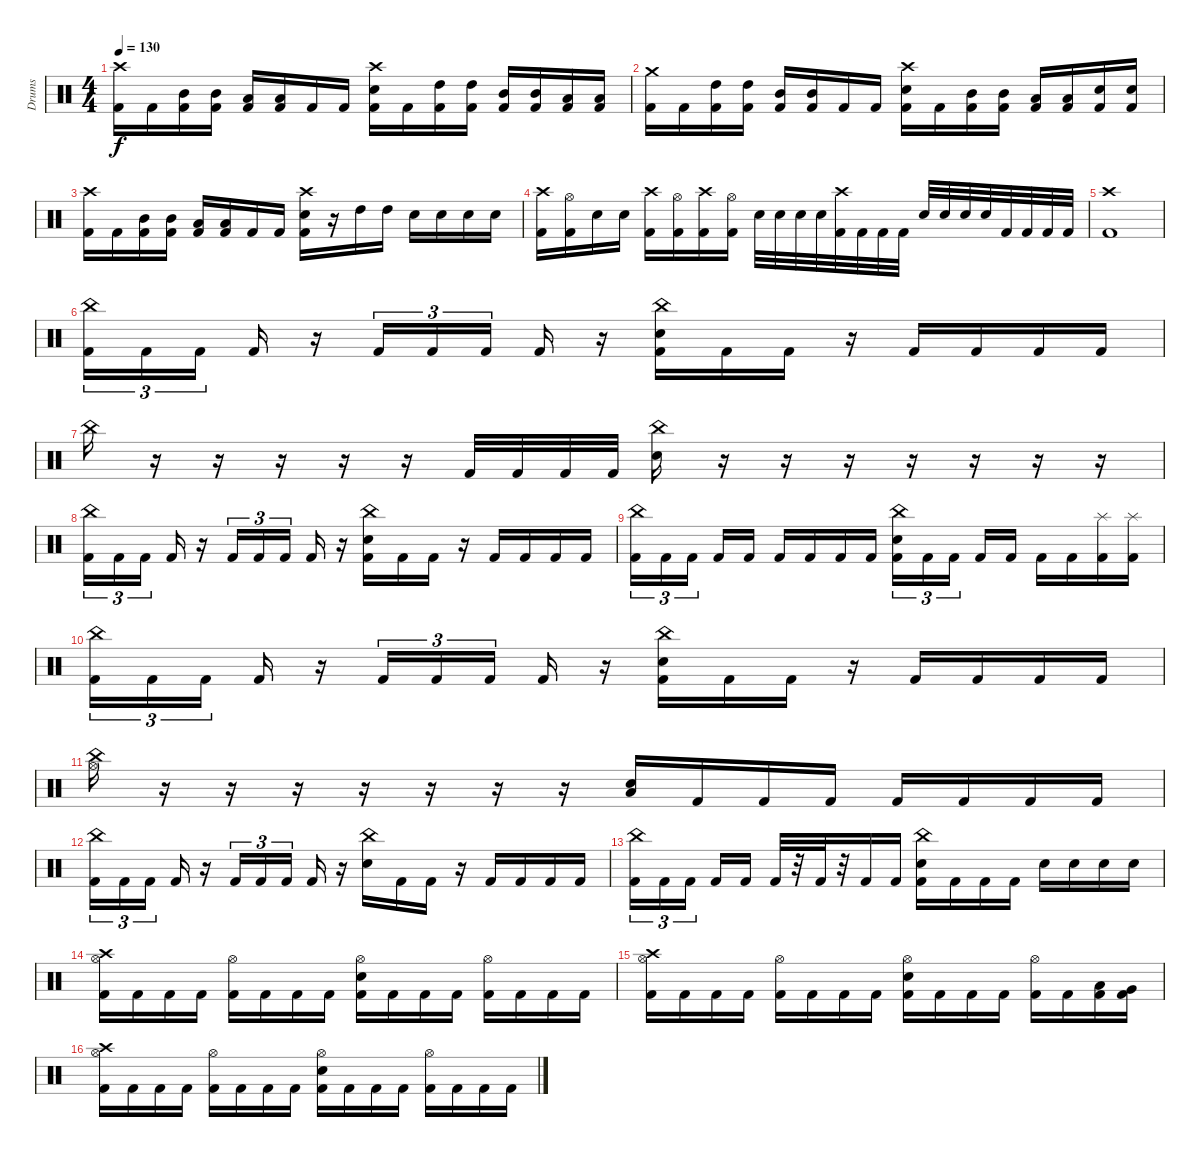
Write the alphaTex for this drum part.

\track ("Drums" "Drums") {instrument percussion}
\staff {score}
\articulation defaults
\ts (4 4)
\tempo 130
\clef neutral
\ks c
("Crash high (hit)" "Kick (hit) 2").16{dy f} "Kick (hit) 2".16 ("Mid Tom (hit)" "Kick (hit) 2").16 ("Mid Tom (hit)" "Kick (hit) 2").16 ("Low Tom (hit)" "Kick (hit) 2").16 ("Low Tom (hit)" "Kick (hit) 2").16 "Kick (hit) 2".16 "Kick (hit) 2".16 ("Crash high (hit)" "Electric Snare (hit)" "Kick (hit) 2").16 "Kick (hit) 2".16 ("High Tom (hit)" "Kick (hit) 2").16 ("High Tom (hit)" "Kick (hit) 2").16 ("Mid Tom (hit)" "Kick (hit) 2").16 ("Mid Tom (hit)" "Kick (hit) 2").16 ("Low Tom (hit)" "Kick (hit) 2").16 ("Low Tom (hit)" "Kick (hit) 2").16 |
("Crash medium (hit)" "Kick (hit) 2").16 "Kick (hit) 2".16 ("High Tom (hit)" "Kick (hit) 2").16 ("High Tom (hit)" "Kick (hit) 2").16 ("Mid Tom (hit)" "Kick (hit) 2").16 ("Mid Tom (hit)" "Kick (hit) 2").16 "Kick (hit) 2".16 "Kick (hit) 2".16 ("Crash high (hit)" "Electric Snare (hit)" "Kick (hit) 2").16 "Kick (hit) 2".16 ("Mid Tom (hit)" "Kick (hit) 2").16 ("Mid Tom (hit)" "Kick (hit) 2").16 ("Low Tom (hit)" "Kick (hit) 2").16 ("Low Tom (hit)" "Kick (hit) 2").16 ("Electric Snare (hit)" "Kick (hit) 2").16 ("Electric Snare (hit)" "Kick (hit) 2").16 |
("Crash high (hit)" "Kick (hit) 2").16 "Kick (hit) 2".16 ("Mid Tom (hit)" "Kick (hit) 2").16 ("Mid Tom (hit)" "Kick (hit) 2").16 ("Low Tom (hit)" "Kick (hit) 2").16 ("Low Tom (hit)" "Kick (hit) 2").16 "Kick (hit) 2".16 "Kick (hit) 2".16 ("Crash high (hit)" "Electric Snare (hit)" "Kick (hit) 2").16 r.16 "High Tom (hit)".16 "High Tom (hit)".16 "Electric Snare (hit)".16 "Electric Snare (hit)".16 "Electric Snare (hit)".16 "Electric Snare (hit)".16 |
("Crash high (hit)" "Kick (hit) 2").16 ("Hi-Hat (open)" "Kick (hit) 2").16 "Electric Snare (hit)".16 "Electric Snare (hit)".16 ("Crash high (hit)" "Kick (hit) 2").16 ("Hi-Hat (open)" "Kick (hit) 2").16 ("Crash high (hit)" "Kick (hit) 2").16 ("Hi-Hat (open)" "Kick (hit) 2").16 "Electric Snare (hit)".32 "Electric Snare (hit)".32 "Electric Snare (hit)".32 "Electric Snare (hit)".32 ("Crash high (hit)" "Kick (hit) 2").32 "Kick (hit) 2".32 "Kick (hit) 2".32 "Kick (hit) 2".32 "Electric Snare (hit)".32 "Electric Snare (hit)".32 "Electric Snare (hit)".32 "Electric Snare (hit)".32 "Kick (hit) 2".32 "Kick (hit) 2".32 "Kick (hit) 2".32 "Kick (hit) 2".32 |
("Crash high (hit)" "Kick (hit) 2").1 |
("China (hit)" "Kick (hit) 2").16{tu (3 2)} "Kick (hit) 2".16{tu (3 2)} "Kick (hit) 2".16{tu (3 2) beam splitsecondary} "Kick (hit) 2".16 r.16 "Kick (hit) 2".16{tu (3 2)} "Kick (hit) 2".16{tu (3 2)} "Kick (hit) 2".16{tu (3 2) beam splitsecondary} "Kick (hit) 2".16 r.16 ("China (hit)" "Electric Snare (hit)" "Kick (hit) 2").16 "Kick (hit) 2".16 "Kick (hit) 2".16 r.16 "Kick (hit) 2".16 "Kick (hit) 2".16 "Kick (hit) 2".16 "Kick (hit) 2".16 |
"China (hit)".16 r.16 r.16 r.16 r.16 r.16 "Kick (hit) 2".32 "Kick (hit) 2".32 "Kick (hit) 2".32 "Kick (hit) 2".32 ("China (hit)" "Electric Snare (hit)").16 r.16 r.16 r.16 r.16 r.16 r.16 r.16 |
("China (hit)" "Kick (hit) 2").16{tu (3 2)} "Kick (hit) 2".16{tu (3 2)} "Kick (hit) 2".16{tu (3 2) beam splitsecondary} "Kick (hit) 2".16 r.16 "Kick (hit) 2".16{tu (3 2)} "Kick (hit) 2".16{tu (3 2)} "Kick (hit) 2".16{tu (3 2) beam splitsecondary} "Kick (hit) 2".16 r.16 ("China (hit)" "Electric Snare (hit)" "Kick (hit) 2").16 "Kick (hit) 2".16 "Kick (hit) 2".16 r.16 "Kick (hit) 2".16 "Kick (hit) 2".16 "Kick (hit) 2".16 "Kick (hit) 2".16 |
("China (hit)" "Kick (hit) 2").16{tu (3 2)} "Kick (hit) 2".16{tu (3 2)} "Kick (hit) 2".16{tu (3 2) beam splitsecondary} "Kick (hit) 2".16 "Kick (hit) 2".16 "Kick (hit) 2".16 "Kick (hit) 2".16 "Kick (hit) 2".16 "Kick (hit) 2".16 ("China (hit)" "Electric Snare (hit)" "Kick (hit) 2").16{tu (3 2)} "Kick (hit) 2".16{tu (3 2)} "Kick (hit) 2".16{tu (3 2) beam splitsecondary} "Kick (hit) 2".16 "Kick (hit) 2".16 "Kick (hit) 2".16 "Kick (hit) 2".16 ("Splash (hit)" "Kick (hit) 2").16 ("Splash (hit)" "Kick (hit) 2").16 |
("China (hit)" "Kick (hit) 2").16{tu (3 2)} "Kick (hit) 2".16{tu (3 2)} "Kick (hit) 2".16{tu (3 2) beam splitsecondary} "Kick (hit) 2".16 r.16 "Kick (hit) 2".16{tu (3 2)} "Kick (hit) 2".16{tu (3 2)} "Kick (hit) 2".16{tu (3 2) beam splitsecondary} "Kick (hit) 2".16 r.16 ("China (hit)" "Electric Snare (hit)" "Kick (hit) 2").16 "Kick (hit) 2".16 "Kick (hit) 2".16 r.16 "Kick (hit) 2".16 "Kick (hit) 2".16 "Kick (hit) 2".16 "Kick (hit) 2".16 |
("China (hit)" "Hi-Hat (open)").16 r.16 r.16 r.16 r.16 r.16 r.16 r.16 ("Low Tom (hit)" "Electric Snare (hit)").16 "Kick (hit) 2".16 "Kick (hit) 2".16 "Kick (hit) 2".16 "Kick (hit) 2".16 "Kick (hit) 2".16 "Kick (hit) 2".16 "Kick (hit) 2".16 |
("China (hit)" "Kick (hit) 2").16{tu (3 2)} "Kick (hit) 2".16{tu (3 2)} "Kick (hit) 2".16{tu (3 2) beam splitsecondary} "Kick (hit) 2".16 r.16 "Kick (hit) 2".16{tu (3 2)} "Kick (hit) 2".16{tu (3 2)} "Kick (hit) 2".16{tu (3 2) beam splitsecondary} "Kick (hit) 2".16 r.16 ("China (hit)" "Electric Snare (hit)").16 "Kick (hit) 2".16 "Kick (hit) 2".16 r.16 "Kick (hit) 2".16 "Kick (hit) 2".16 "Kick (hit) 2".16 "Kick (hit) 2".16 |
("China (hit)" "Kick (hit) 2").16{tu (3 2)} "Kick (hit) 2".16{tu (3 2)} "Kick (hit) 2".16{tu (3 2) beam splitsecondary} "Kick (hit) 2".16 "Kick (hit) 2".16 "Kick (hit) 2".32 r.32 "Kick (hit) 2".32 r.32 "Kick (hit) 2".16 "Kick (hit) 2".16 ("China (hit)" "Electric Snare (hit)" "Kick (hit) 2").16 "Kick (hit) 2".16 "Kick (hit) 2".16 "Kick (hit) 2".16 "Electric Snare (hit)".16 "Electric Snare (hit)".16 "Electric Snare (hit)".16 "Electric Snare (hit)".16 |
("Crash high (hit)" "Hi-Hat (open)" "Kick (hit) 2").16 "Kick (hit) 2".16 "Kick (hit) 2".16 "Kick (hit) 2".16 ("Hi-Hat (open)" "Kick (hit) 2").16 "Kick (hit) 2".16 "Kick (hit) 2".16 "Kick (hit) 2".16 ("Hi-Hat (open)" "Electric Snare (hit)" "Kick (hit) 2").16 "Kick (hit) 2".16 "Kick (hit) 2".16 "Kick (hit) 2".16 ("Hi-Hat (open)" "Kick (hit) 2").16 "Kick (hit) 2".16 "Kick (hit) 2".16 "Kick (hit) 2".16 |
("Crash high (hit)" "Hi-Hat (open)" "Kick (hit) 2").16 "Kick (hit) 2".16 "Kick (hit) 2".16 "Kick (hit) 2".16 ("Hi-Hat (open)" "Kick (hit) 2").16 "Kick (hit) 2".16 "Kick (hit) 2".16 "Kick (hit) 2".16 ("Hi-Hat (open)" "Electric Snare (hit)" "Kick (hit) 2").16 "Kick (hit) 2".16 "Kick (hit) 2".16 "Kick (hit) 2".16 ("Hi-Hat (open)" "Kick (hit) 2").16 "Kick (hit) 2".16 ("Low Tom (hit)" "Kick (hit) 2").16 ("Very Low Tom (hit)" "Kick (hit) 2").16 |
("Crash high (hit)" "Hi-Hat (open)" "Kick (hit) 2").16 "Kick (hit) 2".16 "Kick (hit) 2".16 "Kick (hit) 2".16 ("Hi-Hat (open)" "Kick (hit) 2").16 "Kick (hit) 2".16 "Kick (hit) 2".16 "Kick (hit) 2".16 ("Hi-Hat (open)" "Electric Snare (hit)" "Kick (hit) 2").16 "Kick (hit) 2".16 "Kick (hit) 2".16 "Kick (hit) 2".16 ("Hi-Hat (open)" "Kick (hit) 2").16 "Kick (hit) 2".16 "Kick (hit) 2".16 "Kick (hit) 2".16
